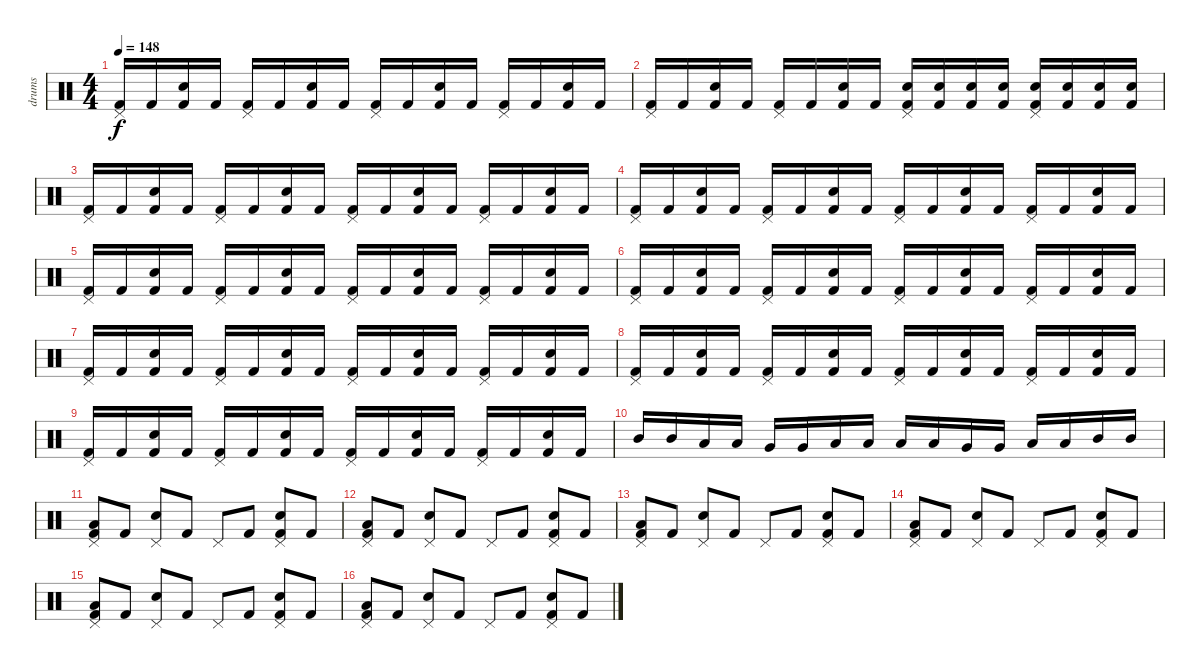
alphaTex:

\track ("drums" "drums") {instrument percussion}
\staff {score}
\articulation defaults
\ts (4 4)
\tempo 148
\clef neutral
\ks c
("Pedal Hi-Hat (hit)" "Kick (hit) 2").16{dy f} "Kick (hit) 2".16 ("Electric Snare (hit)" "Kick (hit) 2").16 "Kick (hit) 2".16 ("Pedal Hi-Hat (hit)" "Kick (hit) 2").16 "Kick (hit) 2".16 ("Electric Snare (hit)" "Kick (hit) 2").16 "Kick (hit) 2".16 ("Pedal Hi-Hat (hit)" "Kick (hit) 2").16 "Kick (hit) 2".16 ("Electric Snare (hit)" "Kick (hit) 2").16 "Kick (hit) 2".16 ("Pedal Hi-Hat (hit)" "Kick (hit) 2").16 "Kick (hit) 2".16 ("Electric Snare (hit)" "Kick (hit) 2").16 "Kick (hit) 2".16 |
("Pedal Hi-Hat (hit)" "Kick (hit) 2").16 "Kick (hit) 2".16 ("Electric Snare (hit)" "Kick (hit) 2").16 "Kick (hit) 2".16 ("Pedal Hi-Hat (hit)" "Kick (hit) 2").16 "Kick (hit) 2".16 ("Electric Snare (hit)" "Kick (hit) 2").16 "Kick (hit) 2".16 ("Pedal Hi-Hat (hit)" "Electric Snare (hit)" "Kick (hit) 2").16 ("Electric Snare (hit)" "Kick (hit) 2").16 ("Electric Snare (hit)" "Kick (hit) 2").16 ("Electric Snare (hit)" "Kick (hit) 2").16 ("Pedal Hi-Hat (hit)" "Electric Snare (hit)" "Kick (hit) 2").16 ("Electric Snare (hit)" "Kick (hit) 2").16 ("Electric Snare (hit)" "Kick (hit) 2").16 ("Electric Snare (hit)" "Kick (hit) 2").16 |
("Pedal Hi-Hat (hit)" "Kick (hit) 2").16 "Kick (hit) 2".16 ("Electric Snare (hit)" "Kick (hit) 2").16 "Kick (hit) 2".16 ("Pedal Hi-Hat (hit)" "Kick (hit) 2").16 "Kick (hit) 2".16 ("Electric Snare (hit)" "Kick (hit) 2").16 "Kick (hit) 2".16 ("Pedal Hi-Hat (hit)" "Kick (hit) 2").16 "Kick (hit) 2".16 ("Electric Snare (hit)" "Kick (hit) 2").16 "Kick (hit) 2".16 ("Pedal Hi-Hat (hit)" "Kick (hit) 2").16 "Kick (hit) 2".16 ("Electric Snare (hit)" "Kick (hit) 2").16 "Kick (hit) 2".16 |
("Pedal Hi-Hat (hit)" "Kick (hit) 2").16 "Kick (hit) 2".16 ("Electric Snare (hit)" "Kick (hit) 2").16 "Kick (hit) 2".16 ("Pedal Hi-Hat (hit)" "Kick (hit) 2").16 "Kick (hit) 2".16 ("Electric Snare (hit)" "Kick (hit) 2").16 "Kick (hit) 2".16 ("Pedal Hi-Hat (hit)" "Kick (hit) 2").16 "Kick (hit) 2".16 ("Electric Snare (hit)" "Kick (hit) 2").16 "Kick (hit) 2".16 ("Pedal Hi-Hat (hit)" "Kick (hit) 2").16 "Kick (hit) 2".16 ("Electric Snare (hit)" "Kick (hit) 2").16 "Kick (hit) 2".16 |
("Pedal Hi-Hat (hit)" "Kick (hit) 2").16 "Kick (hit) 2".16 ("Electric Snare (hit)" "Kick (hit) 2").16 "Kick (hit) 2".16 ("Pedal Hi-Hat (hit)" "Kick (hit) 2").16 "Kick (hit) 2".16 ("Electric Snare (hit)" "Kick (hit) 2").16 "Kick (hit) 2".16 ("Pedal Hi-Hat (hit)" "Kick (hit) 2").16 "Kick (hit) 2".16 ("Electric Snare (hit)" "Kick (hit) 2").16 "Kick (hit) 2".16 ("Pedal Hi-Hat (hit)" "Kick (hit) 2").16 "Kick (hit) 2".16 ("Electric Snare (hit)" "Kick (hit) 2").16 "Kick (hit) 2".16 |
("Pedal Hi-Hat (hit)" "Kick (hit) 2").16 "Kick (hit) 2".16 ("Electric Snare (hit)" "Kick (hit) 2").16 "Kick (hit) 2".16 ("Pedal Hi-Hat (hit)" "Kick (hit) 2").16 "Kick (hit) 2".16 ("Electric Snare (hit)" "Kick (hit) 2").16 "Kick (hit) 2".16 ("Pedal Hi-Hat (hit)" "Kick (hit) 2").16 "Kick (hit) 2".16 ("Electric Snare (hit)" "Kick (hit) 2").16 "Kick (hit) 2".16 ("Pedal Hi-Hat (hit)" "Kick (hit) 2").16 "Kick (hit) 2".16 ("Electric Snare (hit)" "Kick (hit) 2").16 "Kick (hit) 2".16 |
("Pedal Hi-Hat (hit)" "Kick (hit) 2").16 "Kick (hit) 2".16 ("Electric Snare (hit)" "Kick (hit) 2").16 "Kick (hit) 2".16 ("Pedal Hi-Hat (hit)" "Kick (hit) 2").16 "Kick (hit) 2".16 ("Electric Snare (hit)" "Kick (hit) 2").16 "Kick (hit) 2".16 ("Pedal Hi-Hat (hit)" "Kick (hit) 2").16 "Kick (hit) 2".16 ("Electric Snare (hit)" "Kick (hit) 2").16 "Kick (hit) 2".16 ("Pedal Hi-Hat (hit)" "Kick (hit) 2").16 "Kick (hit) 2".16 ("Electric Snare (hit)" "Kick (hit) 2").16 "Kick (hit) 2".16 |
("Pedal Hi-Hat (hit)" "Kick (hit) 2").16 "Kick (hit) 2".16 ("Electric Snare (hit)" "Kick (hit) 2").16 "Kick (hit) 2".16 ("Pedal Hi-Hat (hit)" "Kick (hit) 2").16 "Kick (hit) 2".16 ("Electric Snare (hit)" "Kick (hit) 2").16 "Kick (hit) 2".16 ("Pedal Hi-Hat (hit)" "Kick (hit) 2").16 "Kick (hit) 2".16 ("Electric Snare (hit)" "Kick (hit) 2").16 "Kick (hit) 2".16 ("Pedal Hi-Hat (hit)" "Kick (hit) 2").16 "Kick (hit) 2".16 ("Electric Snare (hit)" "Kick (hit) 2").16 "Kick (hit) 2".16 |
("Pedal Hi-Hat (hit)" "Kick (hit) 2").16 "Kick (hit) 2".16 ("Electric Snare (hit)" "Kick (hit) 2").16 "Kick (hit) 2".16 ("Pedal Hi-Hat (hit)" "Kick (hit) 2").16 "Kick (hit) 2".16 ("Electric Snare (hit)" "Kick (hit) 2").16 "Kick (hit) 2".16 ("Pedal Hi-Hat (hit)" "Kick (hit) 2").16 "Kick (hit) 2".16 ("Electric Snare (hit)" "Kick (hit) 2").16 "Kick (hit) 2".16 ("Pedal Hi-Hat (hit)" "Kick (hit) 2").16 "Kick (hit) 2".16 ("Electric Snare (hit)" "Kick (hit) 2").16 "Kick (hit) 2".16 |
"Mid Tom (hit)".16 "Mid Tom (hit)".16 "Low Tom (hit)".16 "Low Tom (hit)".16 "Very Low Tom (hit)".16 "Very Low Tom (hit)".16 "Low Floor Tom (hit)".16 "Low Floor Tom (hit)".16 "Low Floor Tom (hit)".16 "Low Floor Tom (hit)".16 "Very Low Tom (hit)".16 "Very Low Tom (hit)".16 "Low Tom (hit)".16 "Low Tom (hit)".16 "Mid Tom (hit)".16 "Mid Tom (hit)".16 |
("Pedal Hi-Hat (hit)" "Low Floor Tom (hit)" "Kick (hit) 2").8 "Kick (hit) 2".8 ("Pedal Hi-Hat (hit)" "Snare (hit) 2").8 "Kick (hit) 2".8 "Pedal Hi-Hat (hit)".8 "Kick (hit) 2".8 ("Pedal Hi-Hat (hit)" "Snare (hit) 2" "Kick (hit) 2").8 "Kick (hit) 2".8 |
("Pedal Hi-Hat (hit)" "Low Floor Tom (hit)" "Kick (hit) 2").8 "Kick (hit) 2".8 ("Pedal Hi-Hat (hit)" "Snare (hit) 2").8 "Kick (hit) 2".8 "Pedal Hi-Hat (hit)".8 "Kick (hit) 2".8 ("Pedal Hi-Hat (hit)" "Snare (hit) 2" "Kick (hit) 2").8 "Kick (hit) 2".8 |
("Pedal Hi-Hat (hit)" "Low Floor Tom (hit)" "Kick (hit) 2").8 "Kick (hit) 2".8 ("Pedal Hi-Hat (hit)" "Snare (hit) 2").8 "Kick (hit) 2".8 "Pedal Hi-Hat (hit)".8 "Kick (hit) 2".8 ("Pedal Hi-Hat (hit)" "Snare (hit) 2" "Kick (hit) 2").8 "Kick (hit) 2".8 |
("Pedal Hi-Hat (hit)" "Low Floor Tom (hit)" "Kick (hit) 2").8 "Kick (hit) 2".8 ("Pedal Hi-Hat (hit)" "Snare (hit) 2").8 "Kick (hit) 2".8 "Pedal Hi-Hat (hit)".8 "Kick (hit) 2".8 ("Pedal Hi-Hat (hit)" "Snare (hit) 2" "Kick (hit) 2").8 "Kick (hit) 2".8 |
("Pedal Hi-Hat (hit)" "Low Floor Tom (hit)" "Kick (hit) 2").8 "Kick (hit) 2".8 ("Pedal Hi-Hat (hit)" "Snare (hit) 2").8 "Kick (hit) 2".8 "Pedal Hi-Hat (hit)".8 "Kick (hit) 2".8 ("Pedal Hi-Hat (hit)" "Snare (hit) 2" "Kick (hit) 2").8 "Kick (hit) 2".8 |
("Pedal Hi-Hat (hit)" "Low Floor Tom (hit)" "Kick (hit) 2").8 "Kick (hit) 2".8 ("Pedal Hi-Hat (hit)" "Snare (hit) 2").8 "Kick (hit) 2".8 "Pedal Hi-Hat (hit)".8 "Kick (hit) 2".8 ("Pedal Hi-Hat (hit)" "Snare (hit) 2" "Kick (hit) 2").8 "Kick (hit) 2".8
